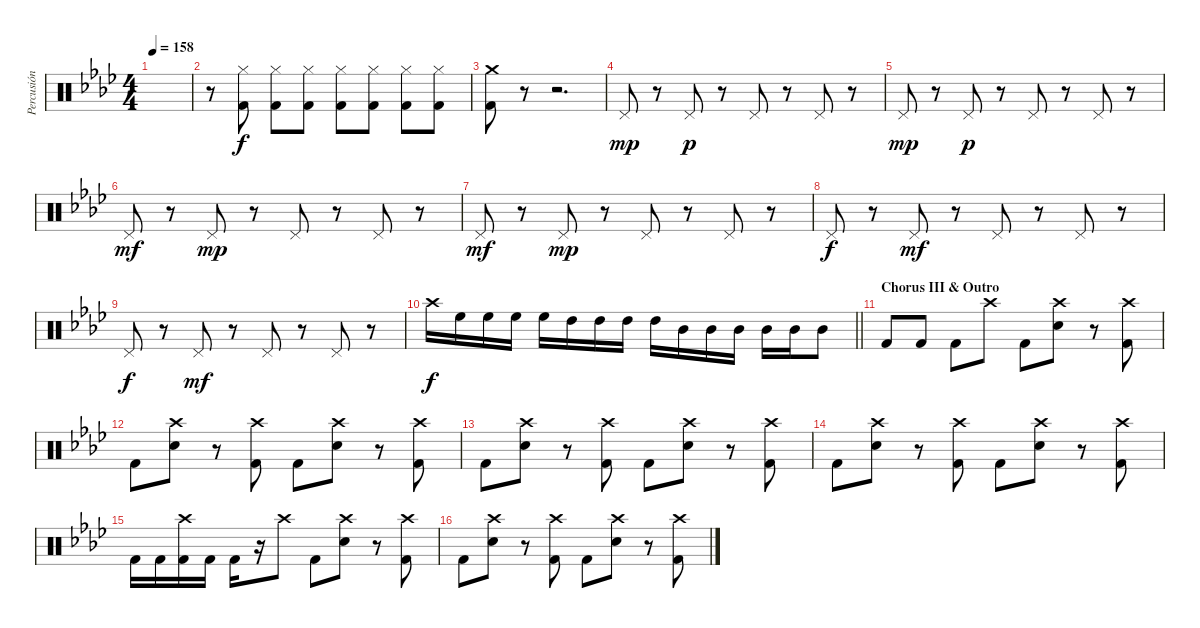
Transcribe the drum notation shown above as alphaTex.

\track ("Percusión" "Percusión") {instrument percussion}
\staff {score}
\articulation defaults
\ts (4 4)
\tempo 158
\clef neutral
\ks ab
|
r.8 ("Hi-Hat (closed)" "Kick (hit) 2").8 ("Hi-Hat (closed)" "Kick (hit) 2").8 ("Hi-Hat (closed)" "Kick (hit) 2").8 ("Hi-Hat (closed)" "Kick (hit) 2").8 ("Hi-Hat (closed)" "Kick (hit) 2").8 ("Hi-Hat (closed)" "Kick (hit) 2").8 ("Hi-Hat (closed)" "Kick (hit) 2").8 |
("Crash medium (hit)" "Kick (hit) 2").8 r.8 r.2{d} |
"Pedal Hi-Hat (hit)".8{dy mp} r.8 "Pedal Hi-Hat (hit)".8{dy p} r.8 "Pedal Hi-Hat (hit)".8 r.8 "Pedal Hi-Hat (hit)".8 r.8 |
"Pedal Hi-Hat (hit)".8{dy mp} r.8 "Pedal Hi-Hat (hit)".8{dy p} r.8 "Pedal Hi-Hat (hit)".8 r.8 "Pedal Hi-Hat (hit)".8 r.8 |
"Pedal Hi-Hat (hit)".8{dy mf} r.8 "Pedal Hi-Hat (hit)".8{dy mp} r.8 "Pedal Hi-Hat (hit)".8 r.8 "Pedal Hi-Hat (hit)".8 r.8 |
"Pedal Hi-Hat (hit)".8{dy mf} r.8 "Pedal Hi-Hat (hit)".8{dy mp} r.8 "Pedal Hi-Hat (hit)".8 r.8 "Pedal Hi-Hat (hit)".8 r.8 |
"Pedal Hi-Hat (hit)".8{dy f} r.8 "Pedal Hi-Hat (hit)".8{dy mf} r.8 "Pedal Hi-Hat (hit)".8 r.8 "Pedal Hi-Hat (hit)".8 r.8 |
"Pedal Hi-Hat (hit)".8{dy f} r.8 "Pedal Hi-Hat (hit)".8{dy mf} r.8 "Pedal Hi-Hat (hit)".8 r.8 "Pedal Hi-Hat (hit)".8 r.8 |
\barLineRight lightlight "Crash high (hit)".16{dy f} "High Floor Tom (hit)".16 "High Floor Tom (hit)".16 "High Floor Tom (hit)".16 "High Floor Tom (hit)".16 "High Tom (hit)".16 "High Tom (hit)".16 "High Tom (hit)".16 "High Tom (hit)".16 "Mid Tom (hit)".16 "Mid Tom (hit)".16 "Mid Tom (hit)".16 "Mid Tom (hit)".16 "Mid Tom (hit)".16 "Mid Tom (hit)".8
|
\section ("" "Chorus III & Outro")
"Kick (hit) 2".8 "Kick (hit) 2".8 "Kick (hit) 2".8 "Crash high (hit)".8 "Kick (hit) 2".8 ("Crash high (hit)" "Snare (hit) 2").8 r.8 ("Crash high (hit)" "Kick (hit) 2").8 |
"Kick (hit) 2".8 ("Crash high (hit)" "Snare (hit) 2").8 r.8 ("Crash high (hit)" "Kick (hit) 2").8 "Kick (hit) 2".8 ("Crash high (hit)" "Snare (hit) 2").8 r.8 ("Crash high (hit)" "Kick (hit) 2").8 |
"Kick (hit) 2".8 ("Crash high (hit)" "Snare (hit) 2").8 r.8 ("Crash high (hit)" "Kick (hit) 2").8 "Kick (hit) 2".8 ("Crash high (hit)" "Snare (hit) 2").8 r.8 ("Crash high (hit)" "Kick (hit) 2").8 |
"Kick (hit) 2".8 ("Crash high (hit)" "Snare (hit) 2").8 r.8 ("Crash high (hit)" "Kick (hit) 2").8 "Kick (hit) 2".8 ("Crash high (hit)" "Snare (hit) 2").8 r.8 ("Crash high (hit)" "Kick (hit) 2").8 |
"Kick (hit) 2".16 "Kick (hit) 2".16 ("Crash high (hit)" "Kick (hit) 2").16 "Kick (hit) 2".16 "Kick (hit) 2".16 r.16 "Crash high (hit)".8 "Kick (hit) 2".8 ("Crash high (hit)" "Snare (hit) 2").8 r.8 ("Crash high (hit)" "Kick (hit) 2").8 |
"Kick (hit) 2".8 ("Crash high (hit)" "Snare (hit) 2").8 r.8 ("Crash high (hit)" "Kick (hit) 2").8 "Kick (hit) 2".8 ("Crash high (hit)" "Snare (hit) 2").8 r.8 ("Crash high (hit)" "Kick (hit) 2").8
